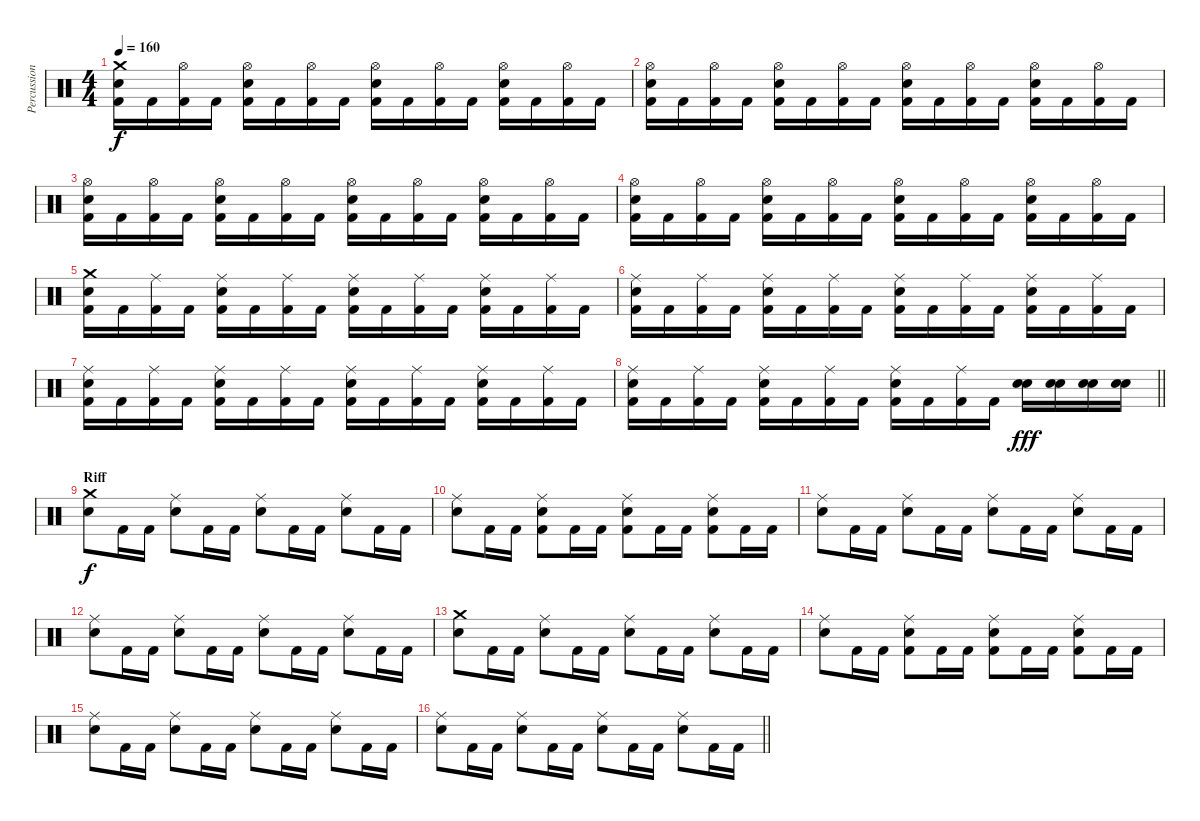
\track ("Percussion" "Percussion") {instrument percussion}
\staff {score}
\articulation defaults
\ts (4 4)
\tempo 160
\clef neutral
\ks c
("Crash medium (hit)" "Snare (hit) 2" "Kick (hit) 2").16{dy f} "Kick (hit) 2".16 ("Hi-Hat (open)" "Kick (hit) 2").16 "Kick (hit) 2".16 ("Hi-Hat (open)" "Snare (hit) 2" "Kick (hit) 2").16 "Kick (hit) 2".16 ("Hi-Hat (open)" "Kick (hit) 2").16 "Kick (hit) 2".16 ("Hi-Hat (open)" "Snare (hit) 2" "Kick (hit) 2").16 "Kick (hit) 2".16 ("Hi-Hat (open)" "Kick (hit) 2").16 "Kick (hit) 2".16 ("Hi-Hat (open)" "Snare (hit) 2" "Kick (hit) 2").16 "Kick (hit) 2".16 ("Hi-Hat (open)" "Kick (hit) 2").16 "Kick (hit) 2".16 |
("Hi-Hat (open)" "Snare (hit) 2" "Kick (hit) 2").16 "Kick (hit) 2".16 ("Hi-Hat (open)" "Kick (hit) 2").16 "Kick (hit) 2".16 ("Hi-Hat (open)" "Snare (hit) 2" "Kick (hit) 2").16 "Kick (hit) 2".16 ("Hi-Hat (open)" "Kick (hit) 2").16 "Kick (hit) 2".16 ("Hi-Hat (open)" "Snare (hit) 2" "Kick (hit) 2").16 "Kick (hit) 2".16 ("Hi-Hat (open)" "Kick (hit) 2").16 "Kick (hit) 2".16 ("Hi-Hat (open)" "Snare (hit) 2" "Kick (hit) 2").16 "Kick (hit) 2".16 ("Hi-Hat (open)" "Kick (hit) 2").16 "Kick (hit) 2".16 |
("Hi-Hat (open)" "Snare (hit) 2" "Kick (hit) 2").16 "Kick (hit) 2".16 ("Hi-Hat (open)" "Kick (hit) 2").16 "Kick (hit) 2".16 ("Hi-Hat (open)" "Snare (hit) 2" "Kick (hit) 2").16 "Kick (hit) 2".16 ("Hi-Hat (open)" "Kick (hit) 2").16 "Kick (hit) 2".16 ("Hi-Hat (open)" "Snare (hit) 2" "Kick (hit) 2").16 "Kick (hit) 2".16 ("Hi-Hat (open)" "Kick (hit) 2").16 "Kick (hit) 2".16 ("Hi-Hat (open)" "Snare (hit) 2" "Kick (hit) 2").16 "Kick (hit) 2".16 ("Hi-Hat (open)" "Kick (hit) 2").16 "Kick (hit) 2".16 |
("Hi-Hat (open)" "Snare (hit) 2" "Kick (hit) 2").16 "Kick (hit) 2".16 ("Hi-Hat (open)" "Kick (hit) 2").16 "Kick (hit) 2".16 ("Hi-Hat (open)" "Snare (hit) 2" "Kick (hit) 2").16 "Kick (hit) 2".16 ("Hi-Hat (open)" "Kick (hit) 2").16 "Kick (hit) 2".16 ("Hi-Hat (open)" "Snare (hit) 2" "Kick (hit) 2").16 "Kick (hit) 2".16 ("Hi-Hat (open)" "Kick (hit) 2").16 "Kick (hit) 2".16 ("Hi-Hat (open)" "Snare (hit) 2" "Kick (hit) 2").16 "Kick (hit) 2".16 ("Hi-Hat (open)" "Kick (hit) 2").16 "Kick (hit) 2".16 |
("Crash medium (hit)" "Snare (hit) 2" "Kick (hit) 2").16 "Kick (hit) 2".16 ("Ride (middle)" "Kick (hit) 2").16 "Kick (hit) 2".16 ("Ride (middle)" "Snare (hit) 2" "Kick (hit) 2").16 "Kick (hit) 2".16 ("Ride (middle)" "Kick (hit) 2").16 "Kick (hit) 2".16 ("Ride (middle)" "Snare (hit) 2" "Kick (hit) 2").16 "Kick (hit) 2".16 ("Ride (middle)" "Kick (hit) 2").16 "Kick (hit) 2".16 ("Ride (middle)" "Snare (hit) 2" "Kick (hit) 2").16 "Kick (hit) 2".16 ("Ride (middle)" "Kick (hit) 2").16 "Kick (hit) 2".16 |
("Ride (middle)" "Snare (hit) 2" "Kick (hit) 2").16 "Kick (hit) 2".16 ("Ride (middle)" "Kick (hit) 2").16 "Kick (hit) 2".16 ("Ride (middle)" "Snare (hit) 2" "Kick (hit) 2").16 "Kick (hit) 2".16 ("Ride (middle)" "Kick (hit) 2").16 "Kick (hit) 2".16 ("Ride (middle)" "Snare (hit) 2" "Kick (hit) 2").16 "Kick (hit) 2".16 ("Ride (middle)" "Kick (hit) 2").16 "Kick (hit) 2".16 ("Ride (middle)" "Snare (hit) 2" "Kick (hit) 2").16 "Kick (hit) 2".16 ("Ride (middle)" "Kick (hit) 2").16 "Kick (hit) 2".16 |
("Ride (middle)" "Snare (hit) 2" "Kick (hit) 2").16 "Kick (hit) 2".16 ("Ride (middle)" "Kick (hit) 2").16 "Kick (hit) 2".16 ("Ride (middle)" "Snare (hit) 2" "Kick (hit) 2").16 "Kick (hit) 2".16 ("Ride (middle)" "Kick (hit) 2").16 "Kick (hit) 2".16 ("Ride (middle)" "Snare (hit) 2" "Kick (hit) 2").16 "Kick (hit) 2".16 ("Ride (middle)" "Kick (hit) 2").16 "Kick (hit) 2".16 ("Ride (middle)" "Snare (hit) 2" "Kick (hit) 2").16 "Kick (hit) 2".16 ("Ride (middle)" "Kick (hit) 2").16 "Kick (hit) 2".16 |
\barLineRight lightlight
("Ride (middle)" "Snare (hit) 2" "Kick (hit) 2").16 "Kick (hit) 2".16 ("Ride (middle)" "Kick (hit) 2").16 "Kick (hit) 2".16 ("Ride (middle)" "Snare (hit) 2" "Kick (hit) 2").16 "Kick (hit) 2".16 ("Ride (middle)" "Kick (hit) 2").16 "Kick (hit) 2".16 ("Ride (middle)" "Snare (hit) 2" "Kick (hit) 2").16 "Kick (hit) 2".16 ("Ride (middle)" "Kick (hit) 2").16 "Kick (hit) 2".16 ("Snare (hit) 2" "Electric Snare (hit)").16{dy fff} ("Snare (hit) 2" "Electric Snare (hit)").16 ("Snare (hit) 2" "Electric Snare (hit)").16 ("Snare (hit) 2" "Electric Snare (hit)").16 |
\section ("" "Riff")
("Crash medium (hit)" "Snare (hit) 2").8{dy f} "Kick (hit) 2".16 "Kick (hit) 2".16 ("Ride (middle)" "Snare (hit) 2").8 "Kick (hit) 2".16 "Kick (hit) 2".16 ("Ride (middle)" "Snare (hit) 2").8 "Kick (hit) 2".16 "Kick (hit) 2".16 ("Ride (middle)" "Snare (hit) 2").8 "Kick (hit) 2".16 "Kick (hit) 2".16 |
("Ride (middle)" "Snare (hit) 2").8 "Kick (hit) 2".16 "Kick (hit) 2".16 ("Ride (middle)" "Snare (hit) 2" "Kick (hit) 2").8 "Kick (hit) 2".16 "Kick (hit) 2".16 ("Ride (middle)" "Snare (hit) 2" "Kick (hit) 2").8 "Kick (hit) 2".16 "Kick (hit) 2".16 ("Ride (middle)" "Snare (hit) 2" "Kick (hit) 2").8 "Kick (hit) 2".16 "Kick (hit) 2".16 |
("Ride (middle)" "Snare (hit) 2").8 "Kick (hit) 2".16 "Kick (hit) 2".16 ("Ride (middle)" "Snare (hit) 2").8 "Kick (hit) 2".16 "Kick (hit) 2".16 ("Ride (middle)" "Snare (hit) 2").8 "Kick (hit) 2".16 "Kick (hit) 2".16 ("Ride (middle)" "Snare (hit) 2").8 "Kick (hit) 2".16 "Kick (hit) 2".16 |
("Ride (middle)" "Snare (hit) 2").8 "Kick (hit) 2".16 "Kick (hit) 2".16 ("Ride (middle)" "Snare (hit) 2").8 "Kick (hit) 2".16 "Kick (hit) 2".16 ("Ride (middle)" "Snare (hit) 2").8 "Kick (hit) 2".16 "Kick (hit) 2".16 ("Ride (middle)" "Snare (hit) 2").8 "Kick (hit) 2".16 "Kick (hit) 2".16 |
("Crash medium (hit)" "Snare (hit) 2").8 "Kick (hit) 2".16 "Kick (hit) 2".16 ("Ride (middle)" "Snare (hit) 2").8 "Kick (hit) 2".16 "Kick (hit) 2".16 ("Ride (middle)" "Snare (hit) 2").8 "Kick (hit) 2".16 "Kick (hit) 2".16 ("Ride (middle)" "Snare (hit) 2").8 "Kick (hit) 2".16 "Kick (hit) 2".16 |
("Ride (middle)" "Snare (hit) 2").8 "Kick (hit) 2".16 "Kick (hit) 2".16 ("Ride (middle)" "Snare (hit) 2" "Kick (hit) 2").8 "Kick (hit) 2".16 "Kick (hit) 2".16 ("Ride (middle)" "Snare (hit) 2" "Kick (hit) 2").8 "Kick (hit) 2".16 "Kick (hit) 2".16 ("Ride (middle)" "Snare (hit) 2" "Kick (hit) 2").8 "Kick (hit) 2".16 "Kick (hit) 2".16 |
("Ride (middle)" "Snare (hit) 2").8 "Kick (hit) 2".16 "Kick (hit) 2".16 ("Ride (middle)" "Snare (hit) 2").8 "Kick (hit) 2".16 "Kick (hit) 2".16 ("Ride (middle)" "Snare (hit) 2").8 "Kick (hit) 2".16 "Kick (hit) 2".16 ("Ride (middle)" "Snare (hit) 2").8 "Kick (hit) 2".16 "Kick (hit) 2".16 |
\barLineRight lightlight
("Ride (middle)" "Snare (hit) 2").8 "Kick (hit) 2".16 "Kick (hit) 2".16 ("Ride (middle)" "Snare (hit) 2").8 "Kick (hit) 2".16 "Kick (hit) 2".16 ("Ride (middle)" "Snare (hit) 2").8 "Kick (hit) 2".16 "Kick (hit) 2".16 ("Ride (middle)" "Snare (hit) 2").8 "Kick (hit) 2".16 "Kick (hit) 2".16
